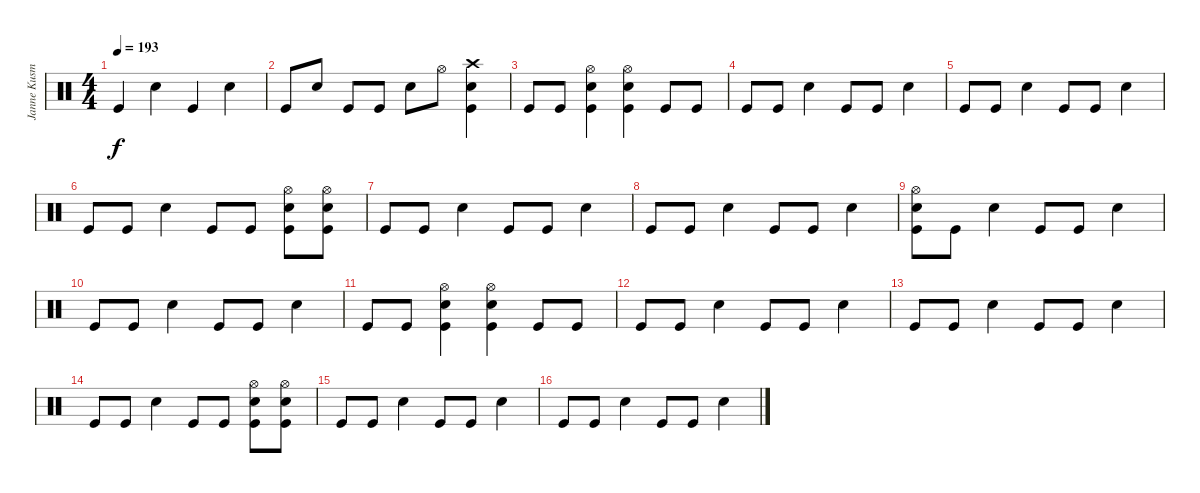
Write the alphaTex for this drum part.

\track ("Janne Kusmin " "Janne Kusm") {instrument percussion}
\staff {score}
\articulation defaults
\ts (4 4)
\tempo 193
\clef neutral
\ks c "Kick (hit)".4{dy f} "Snare (hit) 2".4 "Kick (hit)".4 "Snare (hit) 2".4
|
"Kick (hit)".8 "Snare (hit) 2".8 "Kick (hit)".8 "Kick (hit)".8 "Snare (hit) 2".8 "Hi-Hat (open)".8 ("Snare (hit) 2" "Crash high (hit)" "Kick (hit)").4 |
"Kick (hit)".8 "Kick (hit)".8 ("Hi-Hat (open)" "Snare (hit) 2" "Kick (hit)").4 ("Hi-Hat (open)" "Snare (hit) 2" "Kick (hit)").4 "Kick (hit)".8 "Kick (hit)".8 |
"Kick (hit)".8 "Kick (hit)".8 "Snare (hit) 2".4 "Kick (hit)".8 "Kick (hit)".8 "Snare (hit) 2".4 |
"Kick (hit)".8 "Kick (hit)".8 "Snare (hit) 2".4 "Kick (hit)".8 "Kick (hit)".8 "Snare (hit) 2".4 |
"Kick (hit)".8 "Kick (hit)".8 "Snare (hit) 2".4 "Kick (hit)".8 "Kick (hit)".8 ("Hi-Hat (open)" "Snare (hit) 2" "Kick (hit)").8 ("Hi-Hat (open)" "Snare (hit) 2" "Kick (hit)").8 |
"Kick (hit)".8 "Kick (hit)".8 "Snare (hit) 2".4 "Kick (hit)".8 "Kick (hit)".8 "Snare (hit) 2".4 |
"Kick (hit)".8 "Kick (hit)".8 "Snare (hit) 2".4 "Kick (hit)".8 "Kick (hit)".8 "Snare (hit) 2".4 |
("Hi-Hat (open)" "Snare (hit) 2" "Kick (hit)").8 "Kick (hit)".8 "Snare (hit) 2".4 "Kick (hit)".8 "Kick (hit)".8 "Snare (hit) 2".4 |
"Kick (hit)".8 "Kick (hit)".8 "Snare (hit) 2".4 "Kick (hit)".8 "Kick (hit)".8 "Snare (hit) 2".4 |
"Kick (hit)".8 "Kick (hit)".8 ("Hi-Hat (open)" "Snare (hit) 2" "Kick (hit)").4 ("Hi-Hat (open)" "Snare (hit) 2" "Kick (hit)").4 "Kick (hit)".8 "Kick (hit)".8 |
"Kick (hit)".8 "Kick (hit)".8 "Snare (hit) 2".4 "Kick (hit)".8 "Kick (hit)".8 "Snare (hit) 2".4 |
"Kick (hit)".8 "Kick (hit)".8 "Snare (hit) 2".4 "Kick (hit)".8 "Kick (hit)".8 "Snare (hit) 2".4 |
"Kick (hit)".8 "Kick (hit)".8 "Snare (hit) 2".4 "Kick (hit)".8 "Kick (hit)".8 ("Hi-Hat (open)" "Snare (hit) 2" "Kick (hit)").8 ("Hi-Hat (open)" "Snare (hit) 2" "Kick (hit)").8 |
"Kick (hit)".8 "Kick (hit)".8 "Snare (hit) 2".4 "Kick (hit)".8 "Kick (hit)".8 "Snare (hit) 2".4 |
"Kick (hit)".8 "Kick (hit)".8 "Snare (hit) 2".4 "Kick (hit)".8 "Kick (hit)".8 "Snare (hit) 2".4
